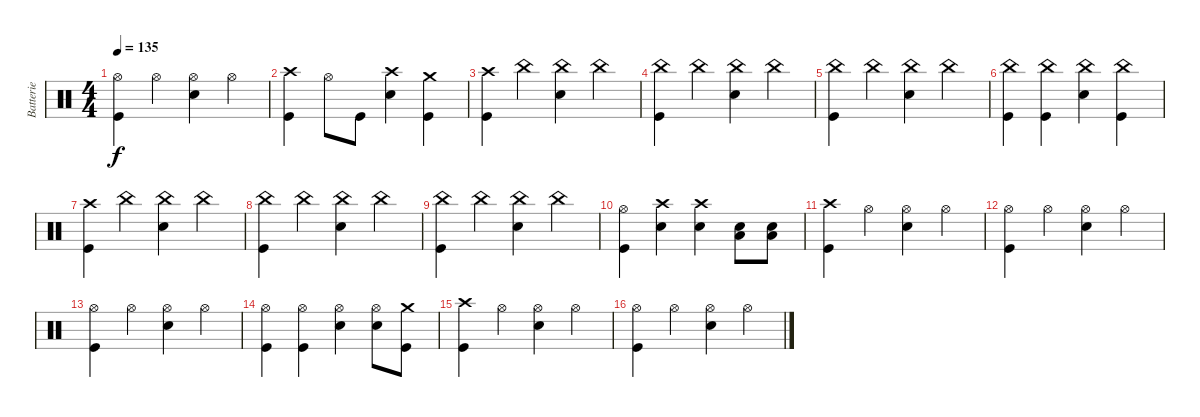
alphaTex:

\track ("Batterie" "Batterie") {instrument percussion}
\staff {score}
\articulation defaults
\ts (4 4)
\tempo 135
\clef neutral
\ks c
("Hi-Hat (open)" "Kick (hit)").4{dy f} "Hi-Hat (open)".4 ("Hi-Hat (open)" "Electric Snare (hit)").4 "Hi-Hat (open)".4 |
("Crash high (hit)" "Kick (hit)").4 "Hi-Hat (open)".8 "Kick (hit)".8 ("Crash high (hit)" "Electric Snare (hit)").4 ("Crash medium (hit)" "Kick (hit)").4 |
("Crash high (hit)" "Kick (hit)").4 "China (hit)".4 ("China (hit)" "Electric Snare (hit)").4 "China (hit)".4 |
("China (hit)" "Kick (hit)").4 "China (hit)".4 ("China (hit)" "Electric Snare (hit)").4 "China (hit)".4 |
("China (hit)" "Kick (hit)").4 "China (hit)".4 ("China (hit)" "Electric Snare (hit)").4 "China (hit)".4 |
("China (hit)" "Kick (hit)").4 ("China (hit)" "Kick (hit)").4 ("China (hit)" "Electric Snare (hit)").4 ("China (hit)" "Kick (hit)").4 |
("Crash high (hit)" "Kick (hit)").4 "China (hit)".4 ("China (hit)" "Electric Snare (hit)").4 "China (hit)".4 |
("China (hit)" "Kick (hit)").4 "China (hit)".4 ("China (hit)" "Electric Snare (hit)").4 "China (hit)".4 |
("China (hit)" "Kick (hit)").4 "China (hit)".4 ("China (hit)" "Electric Snare (hit)").4 "China (hit)".4 |
("Hi-Hat (open)" "Kick (hit)").4 ("Crash high (hit)" "Electric Snare (hit)").4 ("Crash high (hit)" "Electric Snare (hit)").4 ("Electric Snare (hit)" "Low Floor Tom (hit)").8 ("Electric Snare (hit)" "Low Floor Tom (hit)").8 |
("Crash high (hit)" "Kick (hit)").4 "Hi-Hat (open)".4 ("Hi-Hat (open)" "Electric Snare (hit)").4 "Hi-Hat (open)".4 |
("Hi-Hat (open)" "Kick (hit)").4 "Hi-Hat (open)".4 ("Hi-Hat (open)" "Electric Snare (hit)").4 "Hi-Hat (open)".4 |
("Hi-Hat (open)" "Kick (hit)").4 "Hi-Hat (open)".4 ("Hi-Hat (open)" "Electric Snare (hit)").4 "Hi-Hat (open)".4 |
("Hi-Hat (open)" "Kick (hit)").4 ("Hi-Hat (open)" "Kick (hit)").4 ("Hi-Hat (open)" "Electric Snare (hit)").4 ("Hi-Hat (open)" "Electric Snare (hit)").8 ("Crash medium (hit)" "Kick (hit)").8 |
("Crash high (hit)" "Kick (hit)").4 "Hi-Hat (open)".4 ("Hi-Hat (open)" "Electric Snare (hit)").4 "Hi-Hat (open)".4 |
("Hi-Hat (open)" "Kick (hit)").4 "Hi-Hat (open)".4 ("Hi-Hat (open)" "Electric Snare (hit)").4 "Hi-Hat (open)".4
